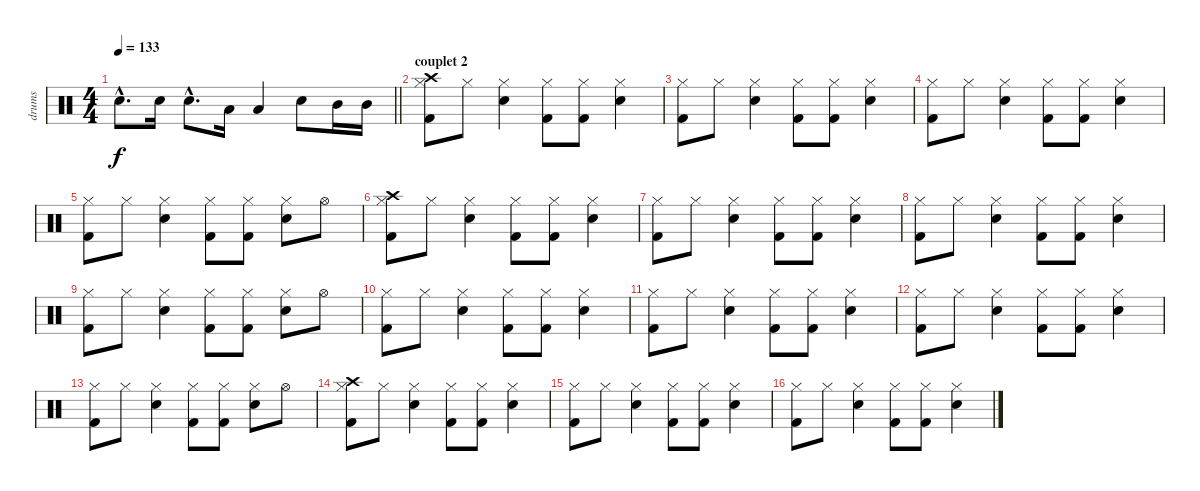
\track ("drums" "drums") {instrument percussion}
\staff {score}
\articulation defaults
\ts (4 4)
\tempo 133
\clef neutral
\barLineRight lightlight
\ks c "Snare (hit) 2"{hac}.8{d dy f} "Snare (hit) 2".16 "Snare (hit) 2"{hac}.8{d} "Low Tom (hit)".16 "Low Tom (hit)".4 "Snare (hit) 2".8 "Mid Tom (hit)".16 "Mid Tom (hit)".16
|
\section ("" "couplet 2")
("Crash high (hit)" "Hi-Hat (closed)" "Kick (hit) 2").8 "Hi-Hat (closed)".8 ("Hi-Hat (closed)" "Snare (hit) 2").4 ("Hi-Hat (closed)" "Kick (hit) 2").8 ("Hi-Hat (closed)" "Kick (hit) 2").8 ("Hi-Hat (closed)" "Snare (hit) 2").4 |
("Hi-Hat (closed)" "Kick (hit) 2").8 "Hi-Hat (closed)".8 ("Hi-Hat (closed)" "Snare (hit) 2").4 ("Hi-Hat (closed)" "Kick (hit) 2").8 ("Hi-Hat (closed)" "Kick (hit) 2").8 ("Hi-Hat (closed)" "Snare (hit) 2").4 |
("Hi-Hat (closed)" "Kick (hit) 2").8 "Hi-Hat (closed)".8 ("Hi-Hat (closed)" "Snare (hit) 2").4 ("Hi-Hat (closed)" "Kick (hit) 2").8 ("Hi-Hat (closed)" "Kick (hit) 2").8 ("Hi-Hat (closed)" "Snare (hit) 2").4 |
("Hi-Hat (closed)" "Kick (hit) 2").8 "Hi-Hat (closed)".8 ("Hi-Hat (closed)" "Snare (hit) 2").4 ("Hi-Hat (closed)" "Kick (hit) 2").8 ("Hi-Hat (closed)" "Kick (hit) 2").8 ("Hi-Hat (closed)" "Snare (hit) 2").8 "Hi-Hat (open)".8 |
("Crash high (hit)" "Hi-Hat (closed)" "Kick (hit) 2").8 "Hi-Hat (closed)".8 ("Hi-Hat (closed)" "Snare (hit) 2").4 ("Hi-Hat (closed)" "Kick (hit) 2").8 ("Hi-Hat (closed)" "Kick (hit) 2").8 ("Hi-Hat (closed)" "Snare (hit) 2").4 |
("Hi-Hat (closed)" "Kick (hit) 2").8 "Hi-Hat (closed)".8 ("Hi-Hat (closed)" "Snare (hit) 2").4 ("Hi-Hat (closed)" "Kick (hit) 2").8 ("Hi-Hat (closed)" "Kick (hit) 2").8 ("Hi-Hat (closed)" "Snare (hit) 2").4 |
("Hi-Hat (closed)" "Kick (hit) 2").8 "Hi-Hat (closed)".8 ("Hi-Hat (closed)" "Snare (hit) 2").4 ("Hi-Hat (closed)" "Kick (hit) 2").8 ("Hi-Hat (closed)" "Kick (hit) 2").8 ("Hi-Hat (closed)" "Snare (hit) 2").4 |
("Hi-Hat (closed)" "Kick (hit) 2").8 "Hi-Hat (closed)".8 ("Hi-Hat (closed)" "Snare (hit) 2").4 ("Hi-Hat (closed)" "Kick (hit) 2").8 ("Hi-Hat (closed)" "Kick (hit) 2").8 ("Hi-Hat (closed)" "Snare (hit) 2").8 "Hi-Hat (open)".8 |
("Hi-Hat (closed)" "Kick (hit) 2").8 "Hi-Hat (closed)".8 ("Hi-Hat (closed)" "Snare (hit) 2").4 ("Hi-Hat (closed)" "Kick (hit) 2").8 ("Hi-Hat (closed)" "Kick (hit) 2").8 ("Hi-Hat (closed)" "Snare (hit) 2").4 |
("Hi-Hat (closed)" "Kick (hit) 2").8 "Hi-Hat (closed)".8 ("Hi-Hat (closed)" "Snare (hit) 2").4 ("Hi-Hat (closed)" "Kick (hit) 2").8 ("Hi-Hat (closed)" "Kick (hit) 2").8 ("Hi-Hat (closed)" "Snare (hit) 2").4 |
("Hi-Hat (closed)" "Kick (hit) 2").8 "Hi-Hat (closed)".8 ("Hi-Hat (closed)" "Snare (hit) 2").4 ("Hi-Hat (closed)" "Kick (hit) 2").8 ("Hi-Hat (closed)" "Kick (hit) 2").8 ("Hi-Hat (closed)" "Snare (hit) 2").4 |
("Hi-Hat (closed)" "Kick (hit) 2").8 "Hi-Hat (closed)".8 ("Hi-Hat (closed)" "Snare (hit) 2").4 ("Hi-Hat (closed)" "Kick (hit) 2").8 ("Hi-Hat (closed)" "Kick (hit) 2").8 ("Hi-Hat (closed)" "Snare (hit) 2").8 "Hi-Hat (open)".8 |
("Crash high (hit)" "Hi-Hat (closed)" "Kick (hit) 2").8 "Hi-Hat (closed)".8 ("Hi-Hat (closed)" "Snare (hit) 2").4 ("Hi-Hat (closed)" "Kick (hit) 2").8 ("Hi-Hat (closed)" "Kick (hit) 2").8 ("Hi-Hat (closed)" "Snare (hit) 2").4 |
("Hi-Hat (closed)" "Kick (hit) 2").8 "Hi-Hat (closed)".8 ("Hi-Hat (closed)" "Snare (hit) 2").4 ("Hi-Hat (closed)" "Kick (hit) 2").8 ("Hi-Hat (closed)" "Kick (hit) 2").8 ("Hi-Hat (closed)" "Snare (hit) 2").4 |
("Hi-Hat (closed)" "Kick (hit) 2").8 "Hi-Hat (closed)".8 ("Hi-Hat (closed)" "Snare (hit) 2").4 ("Hi-Hat (closed)" "Kick (hit) 2").8 ("Hi-Hat (closed)" "Kick (hit) 2").8 ("Hi-Hat (closed)" "Snare (hit) 2").4
